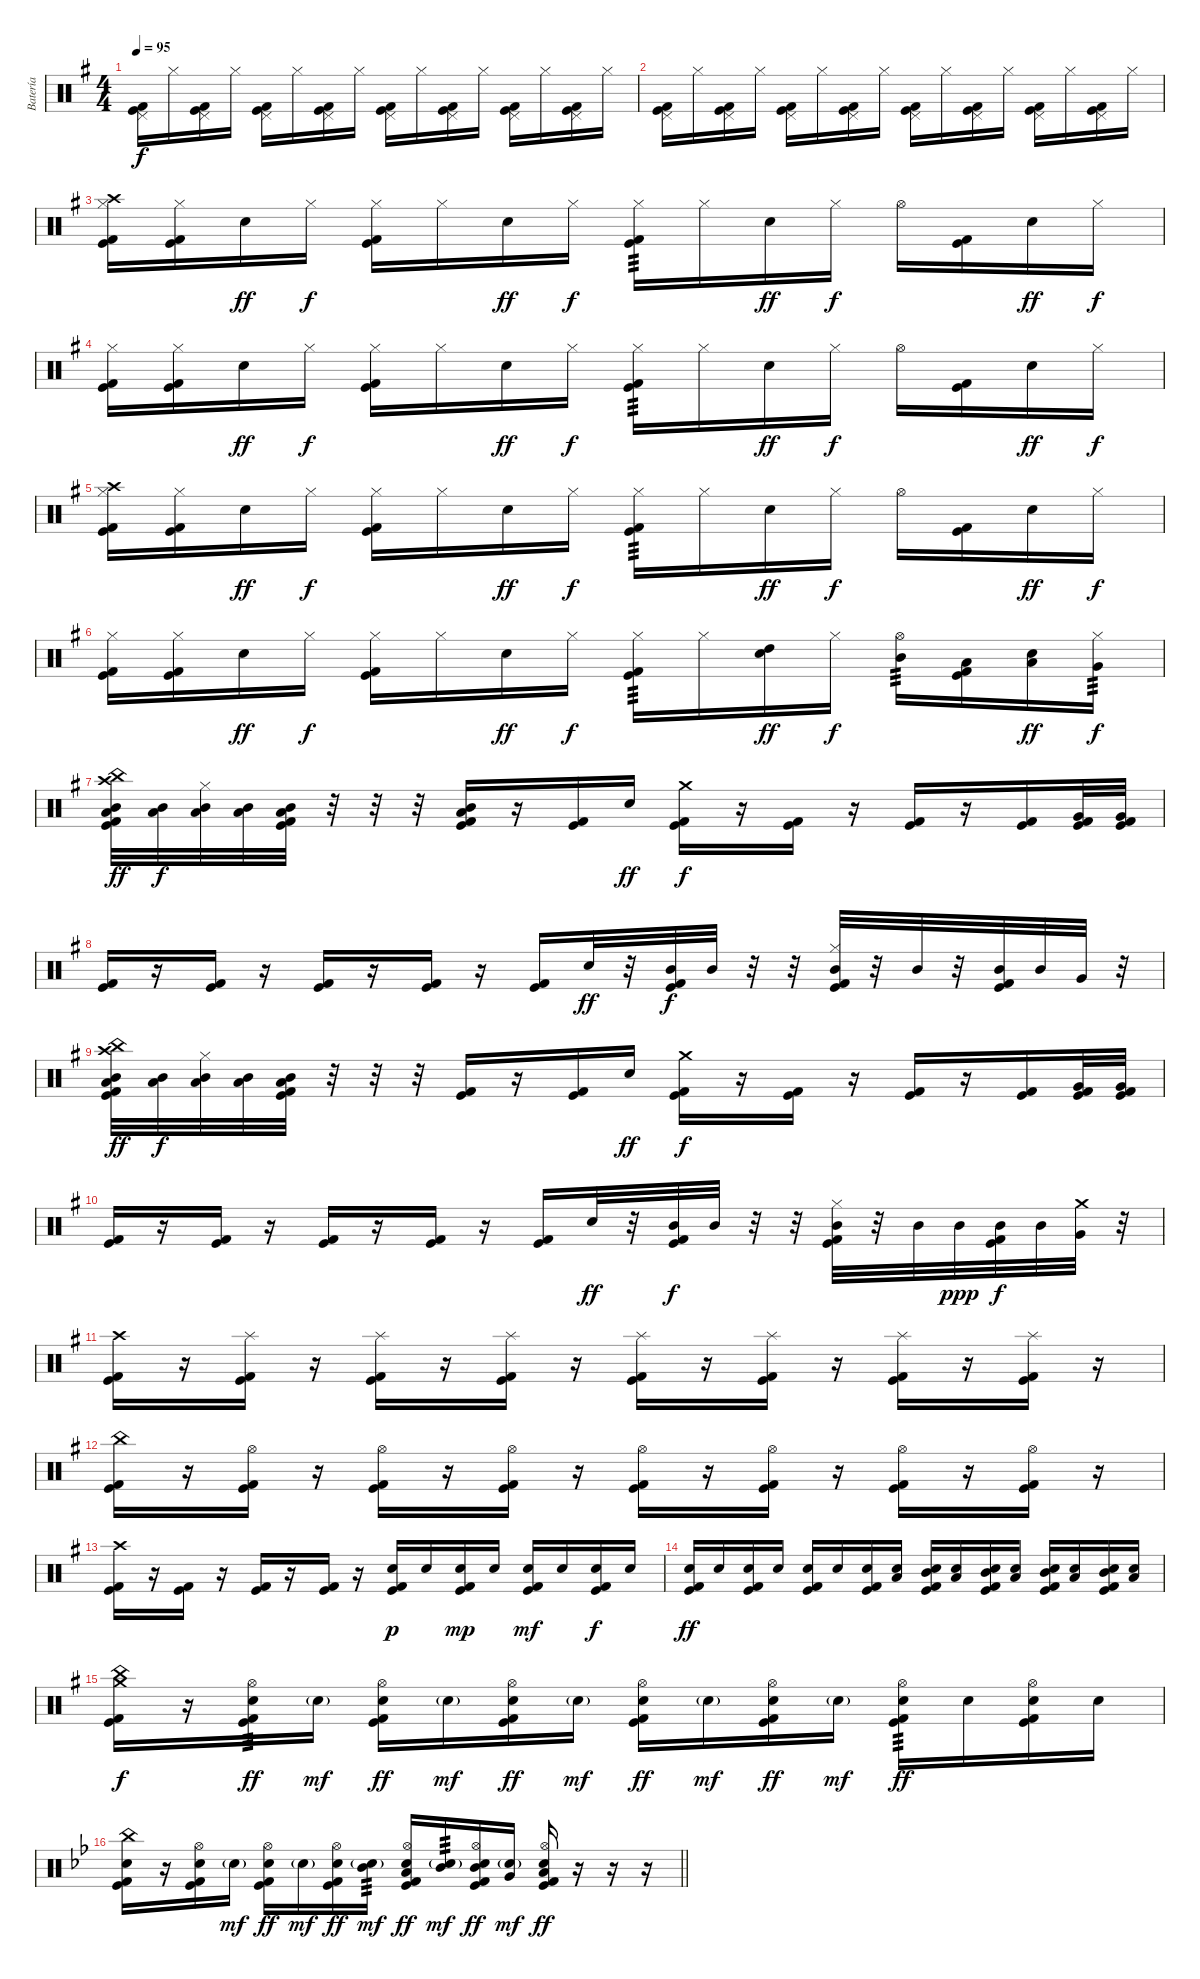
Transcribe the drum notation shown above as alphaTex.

\track ("Batería" "Batería") {instrument percussion}
\staff {score}
\articulation defaults
\ts (4 4)
\tempo 95
\clef neutral
\ks g
("Pedal Hi-Hat (hit)" "Kick (hit) 2" "Kick (hit)").16{dy f} "Hi-Hat (closed)".16 ("Pedal Hi-Hat (hit)" "Kick (hit) 2" "Kick (hit)").16 "Hi-Hat (closed)".16 ("Pedal Hi-Hat (hit)" "Kick (hit) 2" "Kick (hit)").16 "Hi-Hat (closed)".16 ("Pedal Hi-Hat (hit)" "Kick (hit) 2" "Kick (hit)").16 "Hi-Hat (closed)".16 ("Pedal Hi-Hat (hit)" "Kick (hit) 2" "Kick (hit)").16 "Hi-Hat (closed)".16 ("Pedal Hi-Hat (hit)" "Kick (hit) 2" "Kick (hit)").16 "Hi-Hat (closed)".16 ("Pedal Hi-Hat (hit)" "Kick (hit) 2" "Kick (hit)").16 "Hi-Hat (closed)".16 ("Pedal Hi-Hat (hit)" "Kick (hit) 2" "Kick (hit)").16 "Hi-Hat (closed)".16 |
("Pedal Hi-Hat (hit)" "Kick (hit) 2" "Kick (hit)").16 "Hi-Hat (closed)".16 ("Pedal Hi-Hat (hit)" "Kick (hit) 2" "Kick (hit)").16 "Hi-Hat (closed)".16 ("Pedal Hi-Hat (hit)" "Kick (hit) 2" "Kick (hit)").16 "Hi-Hat (closed)".16 ("Pedal Hi-Hat (hit)" "Kick (hit) 2" "Kick (hit)").16 "Hi-Hat (closed)".16 ("Pedal Hi-Hat (hit)" "Kick (hit) 2" "Kick (hit)").16 "Hi-Hat (closed)".16 ("Pedal Hi-Hat (hit)" "Kick (hit) 2" "Kick (hit)").16 "Hi-Hat (closed)".16 ("Pedal Hi-Hat (hit)" "Kick (hit) 2" "Kick (hit)").16 "Hi-Hat (closed)".16 ("Pedal Hi-Hat (hit)" "Kick (hit) 2" "Kick (hit)").16 "Hi-Hat (closed)".16 |
("Crash high (hit)" "Hi-Hat (closed)" "Kick (hit) 2" "Kick (hit)").16 ("Hi-Hat (closed)" "Kick (hit) 2" "Kick (hit)").16 "Electric Snare (hit)".16{dy ff} "Hi-Hat (closed)".16{dy f} ("Hi-Hat (closed)" "Kick (hit) 2" "Kick (hit)").16 "Hi-Hat (closed)".16 "Electric Snare (hit)".16{dy ff} "Hi-Hat (closed)".16{dy f} ("Hi-Hat (closed)" "Kick (hit) 2" "Kick (hit)").16{tp 3} "Hi-Hat (closed)".16 "Electric Snare (hit)".16{dy ff} "Hi-Hat (closed)".16{dy f} "Hi-Hat (open)".16 ("Kick (hit) 2" "Kick (hit)").16 "Electric Snare (hit)".16{dy ff} "Hi-Hat (closed)".16{dy f} |
("Hi-Hat (closed)" "Kick (hit) 2" "Kick (hit)").16 ("Hi-Hat (closed)" "Kick (hit) 2" "Kick (hit)").16 "Electric Snare (hit)".16{dy ff} "Hi-Hat (closed)".16{dy f} ("Hi-Hat (closed)" "Kick (hit) 2" "Kick (hit)").16 "Hi-Hat (closed)".16 "Electric Snare (hit)".16{dy ff} "Hi-Hat (closed)".16{dy f} ("Hi-Hat (closed)" "Kick (hit) 2" "Kick (hit)").16{tp 3} "Hi-Hat (closed)".16 "Electric Snare (hit)".16{dy ff} "Hi-Hat (closed)".16{dy f} "Hi-Hat (open)".16 ("Kick (hit) 2" "Kick (hit)").16 "Electric Snare (hit)".16{dy ff} "Hi-Hat (closed)".16{dy f} |
("Crash high (hit)" "Hi-Hat (closed)" "Kick (hit) 2" "Kick (hit)").16 ("Hi-Hat (closed)" "Kick (hit) 2" "Kick (hit)").16 "Electric Snare (hit)".16{dy ff} "Hi-Hat (closed)".16{dy f} ("Hi-Hat (closed)" "Kick (hit) 2" "Kick (hit)").16 "Hi-Hat (closed)".16 "Electric Snare (hit)".16{dy ff} "Hi-Hat (closed)".16{dy f} ("Hi-Hat (closed)" "Kick (hit) 2" "Kick (hit)").16{tp 3} "Hi-Hat (closed)".16 "Electric Snare (hit)".16{dy ff} "Hi-Hat (closed)".16{dy f} "Hi-Hat (open)".16 ("Kick (hit) 2" "Kick (hit)").16 "Electric Snare (hit)".16{dy ff} "Hi-Hat (closed)".16{dy f} |
("Hi-Hat (closed)" "Kick (hit) 2" "Kick (hit)").16 ("Hi-Hat (closed)" "Kick (hit) 2" "Kick (hit)").16 "Electric Snare (hit)".16{dy ff} "Hi-Hat (closed)".16{dy f} ("Hi-Hat (closed)" "Kick (hit) 2" "Kick (hit)").16 "Hi-Hat (closed)".16 "Electric Snare (hit)".16{dy ff} "Hi-Hat (closed)".16{dy f} ("Hi-Hat (closed)" "Kick (hit) 2" "Kick (hit)").16{tp 3} "Hi-Hat (closed)".16 ("High Tom (hit)" "Electric Snare (hit)").16{dy ff} "Hi-Hat (closed)".16{dy f} ("Hi-Hat (open)" "Mid Tom (hit)").16{tp 3} ("Low Tom (hit)" "Kick (hit) 2" "Kick (hit)").16 ("Low Tom (hit)" "Electric Snare (hit)").16{dy ff} ("Hi-Hat (closed)" "Very Low Tom (hit)").16{tp 3 dy f} |
("Crash high (hit)" "China (hit)" "Mid Tom (hit)" "Low Tom (hit)" "Kick (hit) 2" "Kick (hit)").32{dy ff} ("Mid Tom (hit)" "Low Tom (hit)").32{dy f} ("Hi-Hat (closed)" "Mid Tom (hit)" "Low Tom (hit)").32 ("Mid Tom (hit)" "Low Tom (hit)").32 ("Mid Tom (hit)" "Low Tom (hit)" "Kick (hit) 2" "Kick (hit)").32 r.32 r.32 r.32 ("Mid Tom (hit)" "Low Tom (hit)" "Kick (hit) 2" "Kick (hit)").16 r.16 ("Kick (hit) 2" "Kick (hit)").16 "Electric Snare (hit)".16{dy ff} ("Crash medium (hit)" "Kick (hit) 2" "Kick (hit)").16{dy f} r.16 ("Kick (hit) 2" "Kick (hit)").16 r.16 ("Kick (hit) 2" "Kick (hit)").16 r.16 ("Kick (hit) 2" "Kick (hit)").16 ("Very Low Tom (hit)" "Kick (hit) 2" "Kick (hit)").32 ("Very Low Tom (hit)" "Kick (hit) 2" "Kick (hit)").32 |
("Kick (hit) 2" "Kick (hit)").16 r.16 ("Kick (hit) 2" "Kick (hit)").16 r.16 ("Kick (hit) 2" "Kick (hit)").16 r.16 ("Kick (hit) 2" "Kick (hit)").16 r.16 ("Kick (hit) 2" "Kick (hit)").16 "Electric Snare (hit)".32{dy ff} r.32 ("Mid Tom (hit)" "Kick (hit) 2" "Kick (hit)").32{dy f} "Mid Tom (hit)".32 r.32 r.32 ("Hi-Hat (closed)" "Mid Tom (hit)" "Kick (hit) 2" "Kick (hit)").32 r.32 "Mid Tom (hit)".32 r.32 ("Mid Tom (hit)" "Kick (hit) 2" "Kick (hit)").32 "Mid Tom (hit)".32 "Very Low Tom (hit)".32 r.32 |
("Crash high (hit)" "China (hit)" "Mid Tom (hit)" "Low Tom (hit)" "Kick (hit) 2" "Kick (hit)").32{dy ff} ("Mid Tom (hit)" "Low Tom (hit)").32{dy f} ("Hi-Hat (closed)" "Mid Tom (hit)" "Low Tom (hit)").32 ("Mid Tom (hit)" "Low Tom (hit)").32 ("Mid Tom (hit)" "Low Tom (hit)" "Kick (hit) 2" "Kick (hit)").32 r.32 r.32 r.32 ("Kick (hit) 2" "Kick (hit)").16 r.16 ("Kick (hit) 2" "Kick (hit)").16 "Electric Snare (hit)".16{dy ff} ("Crash medium (hit)" "Kick (hit) 2" "Kick (hit)").16{dy f} r.16 ("Kick (hit) 2" "Kick (hit)").16 r.16 ("Kick (hit) 2" "Kick (hit)").16 r.16 ("Kick (hit) 2" "Kick (hit)").16 ("Very Low Tom (hit)" "Kick (hit) 2" "Kick (hit)").32 ("Very Low Tom (hit)" "Kick (hit) 2" "Kick (hit)").32 |
("Kick (hit) 2" "Kick (hit)").16 r.16 ("Kick (hit) 2" "Kick (hit)").16 r.16 ("Kick (hit) 2" "Kick (hit)").16 r.16 ("Kick (hit) 2" "Kick (hit)").16 r.16 ("Kick (hit) 2" "Kick (hit)").16 "Electric Snare (hit)".32{dy ff} r.32 ("Mid Tom (hit)" "Kick (hit) 2" "Kick (hit)").32{dy f} "Mid Tom (hit)".32 r.32 r.32 ("Hi-Hat (closed)" "Mid Tom (hit)" "Kick (hit) 2" "Kick (hit)").32 r.32 "Mid Tom (hit)".32 "Mid Tom (hit)".32{dy ppp} ("Mid Tom (hit)" "Kick (hit) 2" "Kick (hit)").32{dy f} "Mid Tom (hit)".32 ("Crash medium (hit)" "Very Low Tom (hit)").32 r.32 |
("Crash high (hit)" "Kick (hit) 2" "Kick (hit)").16 r.16 ("Splash (hit)" "Kick (hit) 2" "Kick (hit)").16 r.16 ("Splash (hit)" "Kick (hit) 2" "Kick (hit)").16 r.16 ("Splash (hit)" "Kick (hit) 2" "Kick (hit)").16 r.16 ("Splash (hit)" "Kick (hit) 2" "Kick (hit)").16 r.16 ("Splash (hit)" "Kick (hit) 2" "Kick (hit)").16 r.16 ("Splash (hit)" "Kick (hit) 2" "Kick (hit)").16 r.16 ("Splash (hit)" "Kick (hit) 2" "Kick (hit)").16 r.16 |
("China (hit)" "Kick (hit) 2" "Kick (hit)").16 r.16 ("Hi-Hat (open)" "Kick (hit) 2" "Kick (hit)").16 r.16 ("Hi-Hat (open)" "Kick (hit) 2" "Kick (hit)").16 r.16 ("Hi-Hat (open)" "Kick (hit) 2" "Kick (hit)").16 r.16 ("Hi-Hat (open)" "Kick (hit) 2" "Kick (hit)").16 r.16 ("Hi-Hat (open)" "Kick (hit) 2" "Kick (hit)").16 r.16 ("Hi-Hat (open)" "Kick (hit) 2" "Kick (hit)").16 r.16 ("Hi-Hat (open)" "Kick (hit) 2" "Kick (hit)").16 r.16 |
("Crash high (hit)" "Kick (hit) 2" "Kick (hit)").16 r.16 ("Kick (hit) 2" "Kick (hit)").16 r.16 ("Kick (hit) 2" "Kick (hit)").16 r.16 ("Kick (hit) 2" "Kick (hit)").16 r.16 ("Electric Snare (hit)" "Kick (hit) 2" "Kick (hit)").16{dy p} "Electric Snare (hit)".16 ("Electric Snare (hit)" "Kick (hit) 2" "Kick (hit)").16{dy mp} "Electric Snare (hit)".16 ("Electric Snare (hit)" "Kick (hit) 2" "Kick (hit)").16{dy mf} "Electric Snare (hit)".16 ("Electric Snare (hit)" "Kick (hit) 2" "Kick (hit)").16{dy f} "Electric Snare (hit)".16 |
("Electric Snare (hit)" "Kick (hit) 2" "Kick (hit)").16{dy ff} "Electric Snare (hit)".16 ("Electric Snare (hit)" "Kick (hit) 2" "Kick (hit)").16 "Electric Snare (hit)".16 ("Electric Snare (hit)" "Kick (hit) 2" "Kick (hit)").16 "Electric Snare (hit)".16 ("Electric Snare (hit)" "Kick (hit) 2" "Kick (hit)").16 ("Low Tom (hit)" "Electric Snare (hit)").16 ("Mid Tom (hit)" "Electric Snare (hit)" "Kick (hit) 2" "Kick (hit)").16 ("Low Tom (hit)" "Electric Snare (hit)").16 ("Mid Tom (hit)" "Electric Snare (hit)" "Kick (hit) 2" "Kick (hit)").16 ("Low Tom (hit)" "Electric Snare (hit)").16 ("Mid Tom (hit)" "Electric Snare (hit)" "Kick (hit) 2" "Kick (hit)").16 ("Low Tom (hit)" "Electric Snare (hit)").16 ("Mid Tom (hit)" "Electric Snare (hit)" "Kick (hit) 2" "Kick (hit)").16 ("Low Tom (hit)" "Electric Snare (hit)").16 |
("Crash medium (hit)" "China (hit)" "Kick (hit) 2" "Kick (hit)").16{dy f} r.16 ("Hi-Hat (open)" "Electric Snare (hit)" "Kick (hit) 2" "Kick (hit)").16{tp 3 dy ff} "Electric Snare (hit)"{g}.16{dy mf} ("Hi-Hat (open)" "Electric Snare (hit)" "Kick (hit) 2" "Kick (hit)").16{dy ff} "Electric Snare (hit)"{g}.16{dy mf} ("Hi-Hat (open)" "Electric Snare (hit)" "Kick (hit) 2" "Kick (hit)").16{dy ff} "Electric Snare (hit)"{g}.16{dy mf} ("Hi-Hat (open)" "Electric Snare (hit)" "Kick (hit) 2" "Kick (hit)").16{dy ff} "Electric Snare (hit)"{g}.16{dy mf} ("Hi-Hat (open)" "Electric Snare (hit)" "Kick (hit) 2" "Kick (hit)").16{dy ff} "Electric Snare (hit)"{g}.16{dy mf} ("Hi-Hat (open)" "Electric Snare (hit)" "Kick (hit) 2" "Kick (hit)").16{tp 3 dy ff} "Electric Snare (hit)".16 ("Hi-Hat (open)" "Electric Snare (hit)" "Kick (hit) 2" "Kick (hit)").16 "Electric Snare (hit)".16 |
\barLineRight lightlight
\ks bb
("China (hit)" "Electric Snare (hit)" "Kick (hit) 2" "Kick (hit)").16 r.16 ("Hi-Hat (open)" "Electric Snare (hit)" "Kick (hit) 2" "Kick (hit)").16 "Electric Snare (hit)"{g}.16{dy mf} ("Hi-Hat (open)" "Electric Snare (hit)" "Kick (hit) 2" "Kick (hit)").16{dy ff} "Electric Snare (hit)"{g}.16{dy mf} ("Hi-Hat (open)" "Electric Snare (hit)" "Kick (hit) 2" "Kick (hit)").16{dy ff} ("Mid Tom (hit)" "Electric Snare (hit)"{g}).16{tp 3 dy mf} ("Hi-Hat (open)" "Low Tom (hit)" "Electric Snare (hit)" "Kick (hit) 2" "Kick (hit)").16{dy ff} ("Mid Tom (hit)" "Electric Snare (hit)"{g}).16{tp 3 dy mf} ("Hi-Hat (open)" "Mid Tom (hit)" "Electric Snare (hit)" "Kick (hit) 2" "Kick (hit)").16{dy ff} ("Very Low Tom (hit)" "Electric Snare (hit)"{g}).16{dy mf} ("Hi-Hat (open)" "Low Tom (hit)" "Electric Snare (hit)" "Kick (hit) 2" "Kick (hit)").16{dy ff} r.16 r.16 r.16
